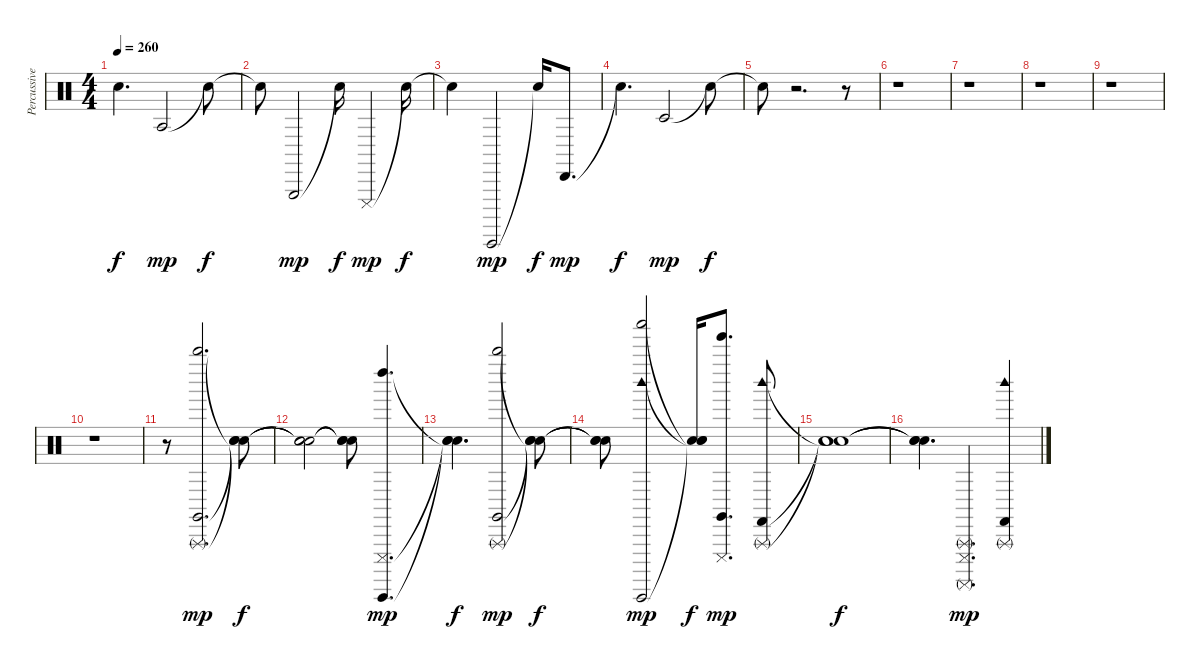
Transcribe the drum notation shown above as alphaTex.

\track ("Percussive Organ" "Percussive") {instrument percussion}
\staff {score}
\articulation defaults
\ts (4 4)
\tempo 260
\clef neutral
\ks c "Snare (hit)"{t}.4{d dy f} "Agogo tow (hit)".2{dy mp} "Snare (hit)"{t}.8{dy f}
|
"Snare (hit)"{t}.8 "Triangle (hit)".2{dy mp} "Snare (hit)"{t}.16{dy f} "Cuica (mute)".4{dy mp} "Snare (hit)"{t}.16{dy f} |
"Snare (hit)"{t}.4 "Guiro (hit)".2{dy mp} "Snare (hit)"{t}.16{dy f} "Cabasa (hit)".8{d dy mp} |
"Snare (hit)"{t}.4{d dy f} "Timbale low (hit)".2{dy mp} "Snare (hit)"{t}.8{dy f} |
"Snare (hit)"{t}.8 r.2{d} r.8 |
r.1 |
r.1 |
r.1 |
r.1 |
r.1 |
r.8 ("Claves (hit)" "Whistle high (hit)" "Triangle (rnute)").2{d dy mp} ("Snare (hit)"{t} "Snare (hit)"{t} "Snare (hit)"{t}).8{dy f} |
("Snare (hit)"{t} "Snare (hit)"{t} "Snare (hit)"{t}).2 ("Snare (hit)"{t} "Snare (hit)"{t} "Snare (hit)"{t}).8 ("Guiro (hit)" "Left Maraca (hit)" "Cuica (mute)").4{d dy mp} |
("Snare (hit)"{t} "Snare (hit)"{t} "Snare (hit)"{t}).4{d dy f} ("Claves (hit)" "Whistle high (hit)" "Triangle (rnute)").2{dy mp} ("Snare (hit)"{t} "Snare (hit)"{t} "Snare (hit)"{t}).8{dy f} |
("Snare (hit)"{t} "Snare (hit)"{t} "Snare (hit)"{t}).8 ("Woodblock high (hit)" "Guiro (hit)" "Shaker (hit)").2{dy mp} ("Snare (hit)"{t} "Snare (hit)"{t} "Snare (hit)"{t}).16{dy f} ("Claves (hit)" "Cuica (mute)" "Tinkle Bell (hit)").8{d dy mp} ("Woodblock high (hit)" "Castanets (hit)" "Triangle (rnute)").8 |
("Snare (hit)"{t} "Snare (hit)"{t} "Snare (hit)"{t}).1{dy f} |
("Snare (hit)"{t} "Snare (hit)"{t} "Snare (hit)"{t}).4{d} ("Cuica (mute)" "Surdo (mute)" "Triangle (rnute)").4{d dy mp} ("Woodblock high (hit)" "Castanets (hit)" "Triangle (rnute)").4
